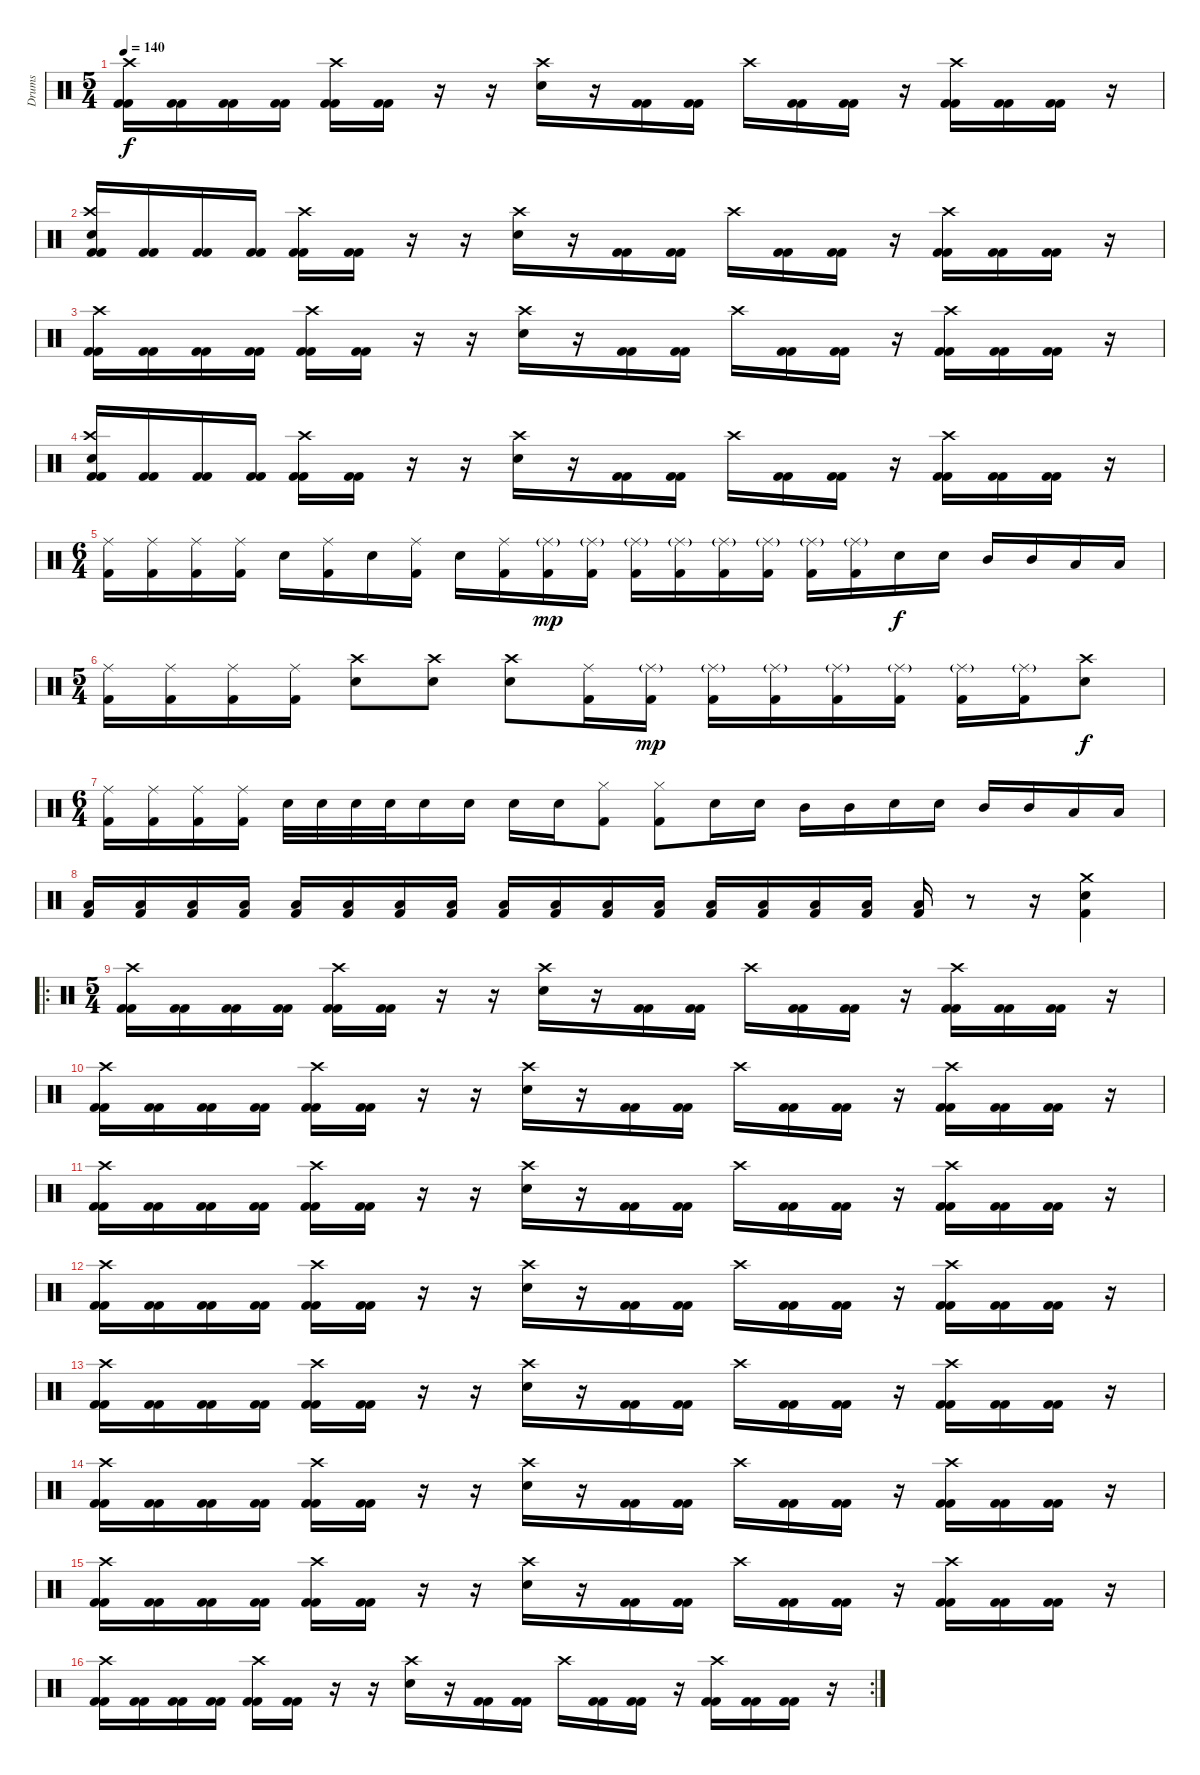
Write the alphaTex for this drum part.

\track ("Drums" "Drums") {instrument percussion}
\staff {score}
\articulation defaults
\ts (5 4)
\tempo 140
\clef neutral
\ks c
("Kick (hit) 2" "Crash high (hit)" "Kick (hit) 2").16{dy f} ("Kick (hit) 2" "Kick (hit) 2").16 ("Kick (hit) 2" "Kick (hit) 2").16 ("Kick (hit) 2" "Kick (hit) 2").16 ("Kick (hit) 2" "Crash high (hit)" "Kick (hit) 2").16 ("Kick (hit) 2" "Kick (hit) 2").16 r.16 r.16 ("Crash high (hit)" "Electric Snare (hit)").16 r.16 ("Kick (hit) 2" "Kick (hit) 2").16 ("Kick (hit) 2" "Kick (hit) 2").16 "Crash high (hit)".16 ("Kick (hit) 2" "Kick (hit) 2").16 ("Kick (hit) 2" "Kick (hit) 2").16 r.16 ("Kick (hit) 2" "Crash high (hit)" "Kick (hit) 2").16 ("Kick (hit) 2" "Kick (hit) 2").16 ("Kick (hit) 2" "Kick (hit) 2").16 r.16 |
("Kick (hit) 2" "Crash high (hit)" "Electric Snare (hit)" "Kick (hit) 2").16 ("Kick (hit) 2" "Kick (hit) 2").16 ("Kick (hit) 2" "Kick (hit) 2").16 ("Kick (hit) 2" "Kick (hit) 2").16 ("Kick (hit) 2" "Crash high (hit)" "Kick (hit) 2").16 ("Kick (hit) 2" "Kick (hit) 2").16 r.16 r.16 ("Crash high (hit)" "Electric Snare (hit)").16 r.16 ("Kick (hit) 2" "Kick (hit) 2").16 ("Kick (hit) 2" "Kick (hit) 2").16 "Crash high (hit)".16 ("Kick (hit) 2" "Kick (hit) 2").16 ("Kick (hit) 2" "Kick (hit) 2").16 r.16 ("Kick (hit) 2" "Crash high (hit)" "Kick (hit) 2").16 ("Kick (hit) 2" "Kick (hit) 2").16 ("Kick (hit) 2" "Kick (hit) 2").16 r.16 |
("Kick (hit) 2" "Crash high (hit)" "Kick (hit) 2").16 ("Kick (hit) 2" "Kick (hit) 2").16 ("Kick (hit) 2" "Kick (hit) 2").16 ("Kick (hit) 2" "Kick (hit) 2").16 ("Kick (hit) 2" "Crash high (hit)" "Kick (hit) 2").16 ("Kick (hit) 2" "Kick (hit) 2").16 r.16 r.16 ("Crash high (hit)" "Electric Snare (hit)").16 r.16 ("Kick (hit) 2" "Kick (hit) 2").16 ("Kick (hit) 2" "Kick (hit) 2").16 "Crash high (hit)".16 ("Kick (hit) 2" "Kick (hit) 2").16 ("Kick (hit) 2" "Kick (hit) 2").16 r.16 ("Kick (hit) 2" "Crash high (hit)" "Kick (hit) 2").16 ("Kick (hit) 2" "Kick (hit) 2").16 ("Kick (hit) 2" "Kick (hit) 2").16 r.16 |
("Kick (hit) 2" "Crash high (hit)" "Electric Snare (hit)" "Kick (hit) 2").16 ("Kick (hit) 2" "Kick (hit) 2").16 ("Kick (hit) 2" "Kick (hit) 2").16 ("Kick (hit) 2" "Kick (hit) 2").16 ("Kick (hit) 2" "Crash high (hit)" "Kick (hit) 2").16 ("Kick (hit) 2" "Kick (hit) 2").16 r.16 r.16 ("Crash high (hit)" "Electric Snare (hit)").16 r.16 ("Kick (hit) 2" "Kick (hit) 2").16 ("Kick (hit) 2" "Kick (hit) 2").16 "Crash high (hit)".16 ("Kick (hit) 2" "Kick (hit) 2").16 ("Kick (hit) 2" "Kick (hit) 2").16 r.16 ("Kick (hit) 2" "Crash high (hit)" "Kick (hit) 2").16 ("Kick (hit) 2" "Kick (hit) 2").16 ("Kick (hit) 2" "Kick (hit) 2").16 r.16 |
\ts (6 4)
("Ride (middle)" "Kick (hit) 2").16 ("Ride (middle)" "Kick (hit) 2").16 ("Ride (middle)" "Kick (hit) 2").16 ("Ride (middle)" "Kick (hit) 2").16 "Electric Snare (hit)".16 ("Ride (middle)" "Kick (hit) 2").16 "Electric Snare (hit)".16 ("Ride (middle)" "Kick (hit) 2").16 "Electric Snare (hit)".16 ("Ride (middle)" "Kick (hit) 2").16 ("Ride (middle)"{g} "Kick (hit) 2").16{dy mp} ("Ride (middle)"{g} "Kick (hit) 2").16 ("Ride (middle)"{g} "Kick (hit) 2").16 ("Ride (middle)"{g} "Kick (hit) 2").16 ("Ride (middle)"{g} "Kick (hit) 2").16 ("Ride (middle)"{g} "Kick (hit) 2").16 ("Ride (middle)"{g} "Kick (hit) 2").16 ("Ride (middle)"{g} "Kick (hit) 2").16 "Electric Snare (hit)".16{dy f} "Electric Snare (hit)".16 "Mid Tom (hit)".16 "Mid Tom (hit)".16 "Low Tom (hit)".16 "Low Tom (hit)".16 |
\ts (5 4)
("Ride (middle)" "Kick (hit) 2").16 ("Ride (middle)" "Kick (hit) 2").16 ("Ride (middle)" "Kick (hit) 2").16 ("Ride (middle)" "Kick (hit) 2").16 ("Crash high (hit)" "Electric Snare (hit)").8 ("Crash high (hit)" "Electric Snare (hit)").8 ("Crash high (hit)" "Electric Snare (hit)").8 ("Ride (middle)" "Kick (hit) 2").16 ("Ride (middle)"{g} "Kick (hit) 2").16{dy mp} ("Ride (middle)"{g} "Kick (hit) 2").16 ("Ride (middle)"{g} "Kick (hit) 2").16 ("Ride (middle)"{g} "Kick (hit) 2").16 ("Ride (middle)"{g} "Kick (hit) 2").16 ("Ride (middle)"{g} "Kick (hit) 2").16 ("Ride (middle)"{g} "Kick (hit) 2").16 ("Crash high (hit)" "Electric Snare (hit)").8{dy f} |
\ts (6 4)
("Ride (middle)" "Kick (hit) 2").16 ("Ride (middle)" "Kick (hit) 2").16 ("Ride (middle)" "Kick (hit) 2").16 ("Ride (middle)" "Kick (hit) 2").16 "Electric Snare (hit)".32 "Electric Snare (hit)".32 "Electric Snare (hit)".32 "Electric Snare (hit)".32 "Electric Snare (hit)".16 "Electric Snare (hit)".16 "Electric Snare (hit)".16 "Electric Snare (hit)".16 ("Hi-Hat (closed)" "Kick (hit) 2").8 ("Hi-Hat (closed)" "Kick (hit) 2").8 "Electric Snare (hit)".16 "Electric Snare (hit)".16 "Mid Tom (hit)".16 "Mid Tom (hit)".16 "Electric Snare (hit)".16 "Electric Snare (hit)".16 "Mid Tom (hit)".16 "Mid Tom (hit)".16 "Low Tom (hit)".16 "Low Tom (hit)".16 |
("Low Floor Tom (hit)" "Kick (hit) 2").16{volume 7} ("Low Floor Tom (hit)" "Kick (hit) 2").16 ("Low Floor Tom (hit)" "Kick (hit) 2").16 ("Low Floor Tom (hit)" "Kick (hit) 2").16 ("Low Floor Tom (hit)" "Kick (hit) 2").16{volume 9} ("Low Floor Tom (hit)" "Kick (hit) 2").16 ("Low Floor Tom (hit)" "Kick (hit) 2").16 ("Low Floor Tom (hit)" "Kick (hit) 2").16 ("Low Floor Tom (hit)" "Kick (hit) 2").16{volume 12} ("Low Floor Tom (hit)" "Kick (hit) 2").16 ("Low Floor Tom (hit)" "Kick (hit) 2").16 ("Low Floor Tom (hit)" "Kick (hit) 2").16 ("Low Floor Tom (hit)" "Kick (hit) 2").16{volume 16} ("Low Floor Tom (hit)" "Kick (hit) 2").16 ("Low Floor Tom (hit)" "Kick (hit) 2").16 ("Low Floor Tom (hit)" "Kick (hit) 2").16 ("Low Floor Tom (hit)" "Kick (hit) 2").16 r.8 r.16 ("Crash medium (hit)" "Electric Snare (hit)" "Kick (hit) 2").4{volume 7} |
\ro
\ts (5 4)
("Kick (hit) 2" "Crash high (hit)" "Kick (hit) 2").16 ("Kick (hit) 2" "Kick (hit) 2").16 ("Kick (hit) 2" "Kick (hit) 2").16 ("Kick (hit) 2" "Kick (hit) 2").16 ("Kick (hit) 2" "Crash high (hit)" "Kick (hit) 2").16 ("Kick (hit) 2" "Kick (hit) 2").16 r.16 r.16 ("Crash high (hit)" "Electric Snare (hit)").16 r.16 ("Kick (hit) 2" "Kick (hit) 2").16 ("Kick (hit) 2" "Kick (hit) 2").16 "Crash high (hit)".16 ("Kick (hit) 2" "Kick (hit) 2").16 ("Kick (hit) 2" "Kick (hit) 2").16 r.16 ("Kick (hit) 2" "Crash high (hit)" "Kick (hit) 2").16 ("Kick (hit) 2" "Kick (hit) 2").16 ("Kick (hit) 2" "Kick (hit) 2").16 r.16 |
("Kick (hit) 2" "Crash high (hit)" "Kick (hit) 2").16 ("Kick (hit) 2" "Kick (hit) 2").16 ("Kick (hit) 2" "Kick (hit) 2").16 ("Kick (hit) 2" "Kick (hit) 2").16 ("Kick (hit) 2" "Crash high (hit)" "Kick (hit) 2").16 ("Kick (hit) 2" "Kick (hit) 2").16 r.16 r.16 ("Crash high (hit)" "Electric Snare (hit)").16 r.16 ("Kick (hit) 2" "Kick (hit) 2").16 ("Kick (hit) 2" "Kick (hit) 2").16 "Crash high (hit)".16 ("Kick (hit) 2" "Kick (hit) 2").16 ("Kick (hit) 2" "Kick (hit) 2").16 r.16 ("Kick (hit) 2" "Crash high (hit)" "Kick (hit) 2").16 ("Kick (hit) 2" "Kick (hit) 2").16 ("Kick (hit) 2" "Kick (hit) 2").16 r.16 |
("Kick (hit) 2" "Crash high (hit)" "Kick (hit) 2").16 ("Kick (hit) 2" "Kick (hit) 2").16 ("Kick (hit) 2" "Kick (hit) 2").16 ("Kick (hit) 2" "Kick (hit) 2").16 ("Kick (hit) 2" "Crash high (hit)" "Kick (hit) 2").16 ("Kick (hit) 2" "Kick (hit) 2").16 r.16 r.16 ("Crash high (hit)" "Electric Snare (hit)").16 r.16 ("Kick (hit) 2" "Kick (hit) 2").16 ("Kick (hit) 2" "Kick (hit) 2").16 "Crash high (hit)".16 ("Kick (hit) 2" "Kick (hit) 2").16 ("Kick (hit) 2" "Kick (hit) 2").16 r.16 ("Kick (hit) 2" "Crash high (hit)" "Kick (hit) 2").16 ("Kick (hit) 2" "Kick (hit) 2").16 ("Kick (hit) 2" "Kick (hit) 2").16 r.16 |
("Kick (hit) 2" "Crash high (hit)" "Kick (hit) 2").16 ("Kick (hit) 2" "Kick (hit) 2").16 ("Kick (hit) 2" "Kick (hit) 2").16 ("Kick (hit) 2" "Kick (hit) 2").16 ("Kick (hit) 2" "Crash high (hit)" "Kick (hit) 2").16 ("Kick (hit) 2" "Kick (hit) 2").16 r.16 r.16 ("Crash high (hit)" "Electric Snare (hit)").16 r.16 ("Kick (hit) 2" "Kick (hit) 2").16 ("Kick (hit) 2" "Kick (hit) 2").16 "Crash high (hit)".16 ("Kick (hit) 2" "Kick (hit) 2").16 ("Kick (hit) 2" "Kick (hit) 2").16 r.16 ("Kick (hit) 2" "Crash high (hit)" "Kick (hit) 2").16 ("Kick (hit) 2" "Kick (hit) 2").16 ("Kick (hit) 2" "Kick (hit) 2").16 r.16 |
("Kick (hit) 2" "Crash high (hit)" "Kick (hit) 2").16 ("Kick (hit) 2" "Kick (hit) 2").16 ("Kick (hit) 2" "Kick (hit) 2").16 ("Kick (hit) 2" "Kick (hit) 2").16 ("Kick (hit) 2" "Crash high (hit)" "Kick (hit) 2").16 ("Kick (hit) 2" "Kick (hit) 2").16 r.16 r.16 ("Crash high (hit)" "Electric Snare (hit)").16 r.16 ("Kick (hit) 2" "Kick (hit) 2").16 ("Kick (hit) 2" "Kick (hit) 2").16 "Crash high (hit)".16 ("Kick (hit) 2" "Kick (hit) 2").16 ("Kick (hit) 2" "Kick (hit) 2").16 r.16 ("Kick (hit) 2" "Crash high (hit)" "Kick (hit) 2").16 ("Kick (hit) 2" "Kick (hit) 2").16 ("Kick (hit) 2" "Kick (hit) 2").16 r.16 |
("Kick (hit) 2" "Crash high (hit)" "Kick (hit) 2").16 ("Kick (hit) 2" "Kick (hit) 2").16 ("Kick (hit) 2" "Kick (hit) 2").16 ("Kick (hit) 2" "Kick (hit) 2").16 ("Kick (hit) 2" "Crash high (hit)" "Kick (hit) 2").16 ("Kick (hit) 2" "Kick (hit) 2").16 r.16 r.16 ("Crash high (hit)" "Electric Snare (hit)").16 r.16 ("Kick (hit) 2" "Kick (hit) 2").16 ("Kick (hit) 2" "Kick (hit) 2").16 "Crash high (hit)".16 ("Kick (hit) 2" "Kick (hit) 2").16 ("Kick (hit) 2" "Kick (hit) 2").16 r.16 ("Kick (hit) 2" "Crash high (hit)" "Kick (hit) 2").16 ("Kick (hit) 2" "Kick (hit) 2").16 ("Kick (hit) 2" "Kick (hit) 2").16 r.16 |
("Kick (hit) 2" "Crash high (hit)" "Kick (hit) 2").16 ("Kick (hit) 2" "Kick (hit) 2").16 ("Kick (hit) 2" "Kick (hit) 2").16 ("Kick (hit) 2" "Kick (hit) 2").16 ("Kick (hit) 2" "Crash high (hit)" "Kick (hit) 2").16 ("Kick (hit) 2" "Kick (hit) 2").16 r.16 r.16 ("Crash high (hit)" "Electric Snare (hit)").16 r.16 ("Kick (hit) 2" "Kick (hit) 2").16 ("Kick (hit) 2" "Kick (hit) 2").16 "Crash high (hit)".16 ("Kick (hit) 2" "Kick (hit) 2").16 ("Kick (hit) 2" "Kick (hit) 2").16 r.16 ("Kick (hit) 2" "Crash high (hit)" "Kick (hit) 2").16 ("Kick (hit) 2" "Kick (hit) 2").16 ("Kick (hit) 2" "Kick (hit) 2").16 r.16 |
\rc 2
("Kick (hit) 2" "Crash high (hit)" "Kick (hit) 2").16 ("Kick (hit) 2" "Kick (hit) 2").16 ("Kick (hit) 2" "Kick (hit) 2").16 ("Kick (hit) 2" "Kick (hit) 2").16 ("Kick (hit) 2" "Crash high (hit)" "Kick (hit) 2").16 ("Kick (hit) 2" "Kick (hit) 2").16 r.16 r.16 ("Crash high (hit)" "Electric Snare (hit)").16 r.16 ("Kick (hit) 2" "Kick (hit) 2").16 ("Kick (hit) 2" "Kick (hit) 2").16 "Crash high (hit)".16 ("Kick (hit) 2" "Kick (hit) 2").16 ("Kick (hit) 2" "Kick (hit) 2").16 r.16 ("Kick (hit) 2" "Crash high (hit)" "Kick (hit) 2").16 ("Kick (hit) 2" "Kick (hit) 2").16 ("Kick (hit) 2" "Kick (hit) 2").16 r.16
